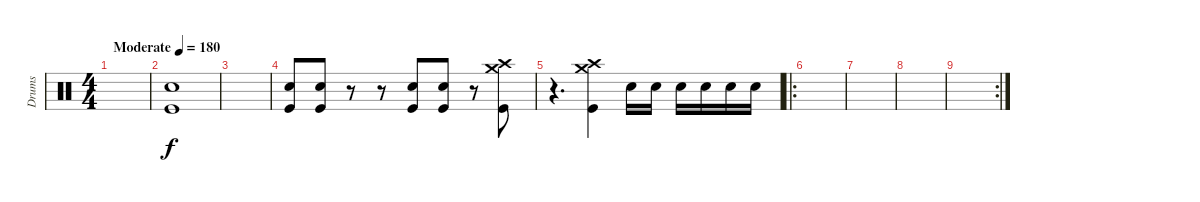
\track ("Drums" "Drums") {instrument percussion}
\staff {score}
\articulation defaults
\ts (4 4)
\tempo (180 "Moderate")
\clef neutral
\ks c
|
("Snare (hit) 2" "Kick (hit)").1 |
|
("Snare (hit) 2" "Kick (hit)").8 ("Snare (hit) 2" "Kick (hit)").8 r.8 r.8 ("Snare (hit) 2" "Kick (hit)").8 ("Snare (hit) 2" "Kick (hit)").8 r.8 ("Crash medium (hit)" "Crash high (hit)" "Kick (hit)").8 |
r.4{d} ("Crash medium (hit)" "Crash high (hit)" "Kick (hit)").4 "Snare (hit) 2".16 "Snare (hit) 2".16 "Snare (hit) 2".16 "Snare (hit) 2".16 "Snare (hit) 2".16 "Snare (hit) 2".16 |
\ro
|
|
|
\rc 2
